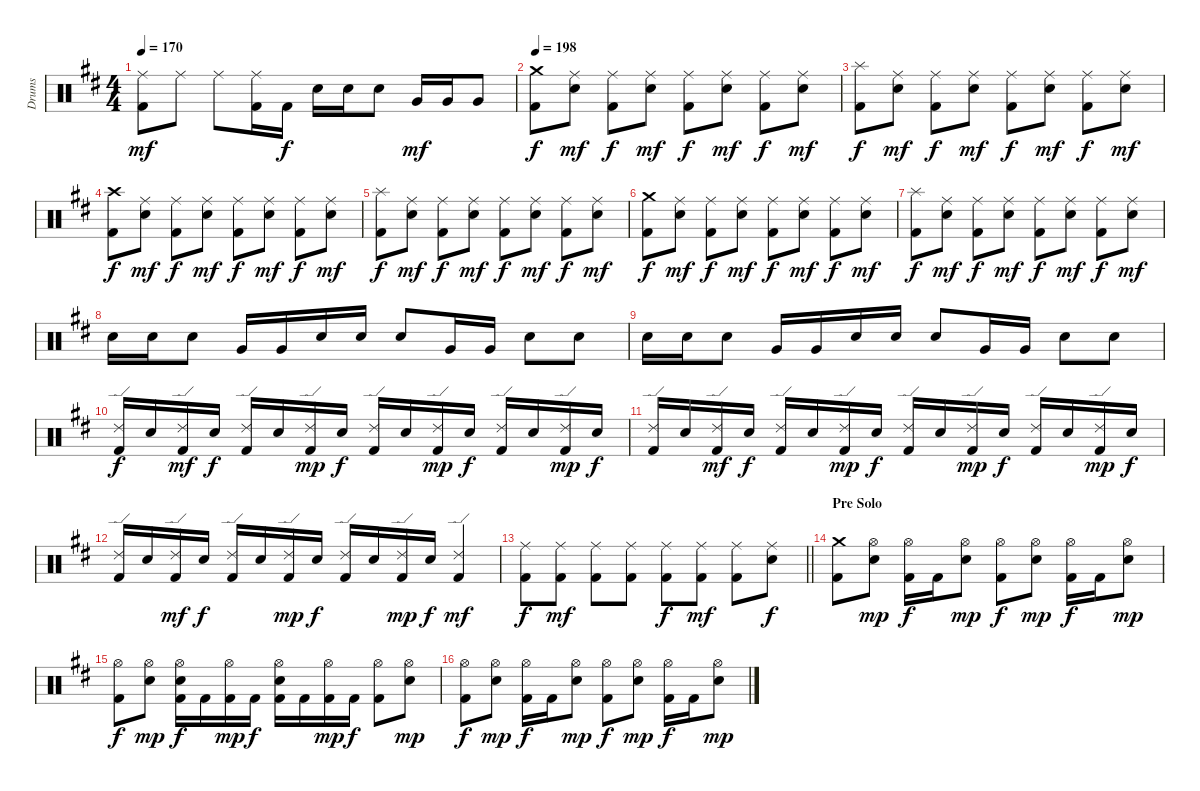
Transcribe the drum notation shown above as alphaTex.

\track ("Drums" "Drums") {instrument percussion}
\staff {score}
\articulation defaults
\ts (4 4)
\tempo 170
\clef neutral
\ks d
("Ride (middle)" "Kick (hit) 2").8{dy mf} "Ride (middle)".8 "Ride (middle)".8 ("Ride (middle)" "Kick (hit) 2").16 "Kick (hit) 2".16{dy f} "Snare (hit) 2".16 "Snare (hit) 2".16 "Snare (hit) 2".8 "Very Low Tom (hit)".16{dy mf} "Very Low Tom (hit)".16 "Very Low Tom (hit)".8 |
\tempo 198
("Crash medium (hit)" "Kick (hit) 2").8{dy f} ("Ride (middle)" "Snare (hit) 2").8{dy mf} ("Ride (middle)" "Kick (hit) 2").8{dy f} ("Ride (middle)" "Snare (hit) 2").8{dy mf} ("Ride (middle)" "Kick (hit) 2").8{dy f} ("Ride (middle)" "Snare (hit) 2").8{dy mf} ("Ride (middle)" "Kick (hit) 2").8{dy f} ("Ride (middle)" "Snare (hit) 2").8{dy mf} |
("Splash (hit)" "Kick (hit) 2").8{dy f} ("Ride (middle)" "Snare (hit) 2").8{dy mf} ("Ride (middle)" "Kick (hit) 2").8{dy f} ("Ride (middle)" "Snare (hit) 2").8{dy mf} ("Ride (middle)" "Kick (hit) 2").8{dy f} ("Ride (middle)" "Snare (hit) 2").8{dy mf} ("Ride (middle)" "Kick (hit) 2").8{dy f} ("Ride (middle)" "Snare (hit) 2").8{dy mf} |
("Crash high (hit)" "Kick (hit) 2").8{dy f} ("Ride (middle)" "Snare (hit) 2").8{dy mf} ("Ride (middle)" "Kick (hit) 2").8{dy f} ("Ride (middle)" "Snare (hit) 2").8{dy mf} ("Ride (middle)" "Kick (hit) 2").8{dy f} ("Ride (middle)" "Snare (hit) 2").8{dy mf} ("Ride (middle)" "Kick (hit) 2").8{dy f} ("Ride (middle)" "Snare (hit) 2").8{dy mf} |
("Splash (hit)" "Kick (hit) 2").8{dy f} ("Ride (middle)" "Snare (hit) 2").8{dy mf} ("Ride (middle)" "Kick (hit) 2").8{dy f} ("Ride (middle)" "Snare (hit) 2").8{dy mf} ("Ride (middle)" "Kick (hit) 2").8{dy f} ("Ride (middle)" "Snare (hit) 2").8{dy mf} ("Ride (middle)" "Kick (hit) 2").8{dy f} ("Ride (middle)" "Snare (hit) 2").8{dy mf} |
("Crash medium (hit)" "Kick (hit) 2").8{dy f} ("Ride (middle)" "Snare (hit) 2").8{dy mf} ("Ride (middle)" "Kick (hit) 2").8{dy f} ("Ride (middle)" "Snare (hit) 2").8{dy mf} ("Ride (middle)" "Kick (hit) 2").8{dy f} ("Ride (middle)" "Snare (hit) 2").8{dy mf} ("Ride (middle)" "Kick (hit) 2").8{dy f} ("Ride (middle)" "Snare (hit) 2").8{dy mf} |
("Splash (hit)" "Kick (hit) 2").8{dy f} ("Ride (middle)" "Snare (hit) 2").8{dy mf} ("Ride (middle)" "Kick (hit) 2").8{dy f} ("Ride (middle)" "Snare (hit) 2").8{dy mf} ("Ride (middle)" "Kick (hit) 2").8{dy f} ("Ride (middle)" "Snare (hit) 2").8{dy mf} ("Ride (middle)" "Kick (hit) 2").8{dy f} ("Ride (middle)" "Snare (hit) 2").8{dy mf} |
"Snare (hit) 2".16 "Snare (hit) 2".16 "Snare (hit) 2".8 "Very Low Tom (hit)".16 "Very Low Tom (hit)".16 "Snare (hit) 2".16 "Snare (hit) 2".16 "Snare (hit) 2".8 "Very Low Tom (hit)".16 "Very Low Tom (hit)".16 "Snare (hit) 2".8 "Snare (hit) 2".8 |
"Snare (hit) 2".16 "Snare (hit) 2".16 "Snare (hit) 2".8 "Very Low Tom (hit)".16 "Very Low Tom (hit)".16 "Snare (hit) 2".16 "Snare (hit) 2".16 "Snare (hit) 2".8 "Very Low Tom (hit)".16 "Very Low Tom (hit)".16 "Snare (hit) 2".8 "Snare (hit) 2".8 |
("Ride (edge) 2" "Kick (hit) 2").16{dy f} "Snare (hit) 2".16 ("Ride (edge) 2" "Kick (hit) 2").16{dy mf} "Snare (hit) 2".16{dy f} ("Ride (edge) 2" "Kick (hit) 2").16 "Snare (hit) 2".16 ("Ride (edge) 2" "Kick (hit) 2").16{dy mp} "Snare (hit) 2".16{dy f} ("Ride (edge) 2" "Kick (hit) 2").16 "Snare (hit) 2".16 ("Ride (edge) 2" "Kick (hit) 2").16{dy mp} "Snare (hit) 2".16{dy f} ("Ride (edge) 2" "Kick (hit) 2").16 "Snare (hit) 2".16 ("Ride (edge) 2" "Kick (hit) 2").16{dy mp} "Snare (hit) 2".16{dy f} |
("Ride (edge) 2" "Kick (hit) 2").16 "Snare (hit) 2".16 ("Ride (edge) 2" "Kick (hit) 2").16{dy mf} "Snare (hit) 2".16{dy f} ("Ride (edge) 2" "Kick (hit) 2").16 "Snare (hit) 2".16 ("Ride (edge) 2" "Kick (hit) 2").16{dy mp} "Snare (hit) 2".16{dy f} ("Ride (edge) 2" "Kick (hit) 2").16 "Snare (hit) 2".16 ("Ride (edge) 2" "Kick (hit) 2").16{dy mp} "Snare (hit) 2".16{dy f} ("Ride (edge) 2" "Kick (hit) 2").16 "Snare (hit) 2".16 ("Ride (edge) 2" "Kick (hit) 2").16{dy mp} "Snare (hit) 2".16{dy f} |
("Ride (edge) 2" "Kick (hit) 2").16 "Snare (hit) 2".16 ("Ride (edge) 2" "Kick (hit) 2").16{dy mf} "Snare (hit) 2".16{dy f} ("Ride (edge) 2" "Kick (hit) 2").16 "Snare (hit) 2".16 ("Ride (edge) 2" "Kick (hit) 2").16{dy mp} "Snare (hit) 2".16{dy f} ("Ride (edge) 2" "Kick (hit) 2").16 "Snare (hit) 2".16 ("Ride (edge) 2" "Kick (hit) 2").16{dy mp} "Snare (hit) 2".16{dy f} ("Ride (edge) 2" "Kick (hit) 2").4{dy mf} |
\barLineRight lightlight
("Ride (middle)" "Kick (hit) 2").8{dy f} ("Ride (middle)" "Kick (hit) 2").8{dy mf} ("Ride (middle)" "Kick (hit) 2").8 ("Ride (middle)" "Kick (hit) 2").8 ("Ride (middle)" "Kick (hit) 2").8{dy f} ("Ride (middle)" "Kick (hit) 2").8{dy mf} ("Ride (middle)" "Kick (hit) 2").8 ("Ride (middle)" "Snare (hit) 2").8{dy f} |
\section ("" "Pre Solo")
("Crash medium (hit)" "Kick (hit) 2").8 ("Hi-Hat (open)" "Snare (hit) 2").8{dy mp} ("Hi-Hat (open)" "Kick (hit) 2").16{dy f} "Kick (hit) 2".16 ("Hi-Hat (open)" "Snare (hit) 2").8{dy mp} ("Hi-Hat (open)" "Kick (hit) 2").8{dy f} ("Hi-Hat (open)" "Snare (hit) 2").8{dy mp} ("Hi-Hat (open)" "Kick (hit) 2").16{dy f} "Kick (hit) 2".16 ("Hi-Hat (open)" "Snare (hit) 2").8{dy mp} |
("Hi-Hat (open)" "Kick (hit) 2").8{dy f} ("Hi-Hat (open)" "Snare (hit) 2").8{dy mp} ("Hi-Hat (open)" "Snare (hit) 2" "Kick (hit) 2").16{dy f} "Kick (hit) 2".16 ("Hi-Hat (open)" "Kick (hit) 2").16{dy mp} "Kick (hit) 2".16{dy f} ("Hi-Hat (open)" "Snare (hit) 2" "Kick (hit) 2").16 "Kick (hit) 2".16 ("Hi-Hat (open)" "Kick (hit) 2").16{dy mp} "Kick (hit) 2".16{dy f} ("Hi-Hat (open)" "Kick (hit) 2").8 ("Hi-Hat (open)" "Snare (hit) 2").8{dy mp} |
("Hi-Hat (open)" "Kick (hit) 2").8{dy f} ("Hi-Hat (open)" "Snare (hit) 2").8{dy mp} ("Hi-Hat (open)" "Kick (hit) 2").16{dy f} "Kick (hit) 2".16 ("Hi-Hat (open)" "Snare (hit) 2").8{dy mp} ("Hi-Hat (open)" "Kick (hit) 2").8{dy f} ("Hi-Hat (open)" "Snare (hit) 2").8{dy mp} ("Hi-Hat (open)" "Kick (hit) 2").16{dy f} "Kick (hit) 2".16 ("Hi-Hat (open)" "Snare (hit) 2").8{dy mp}
